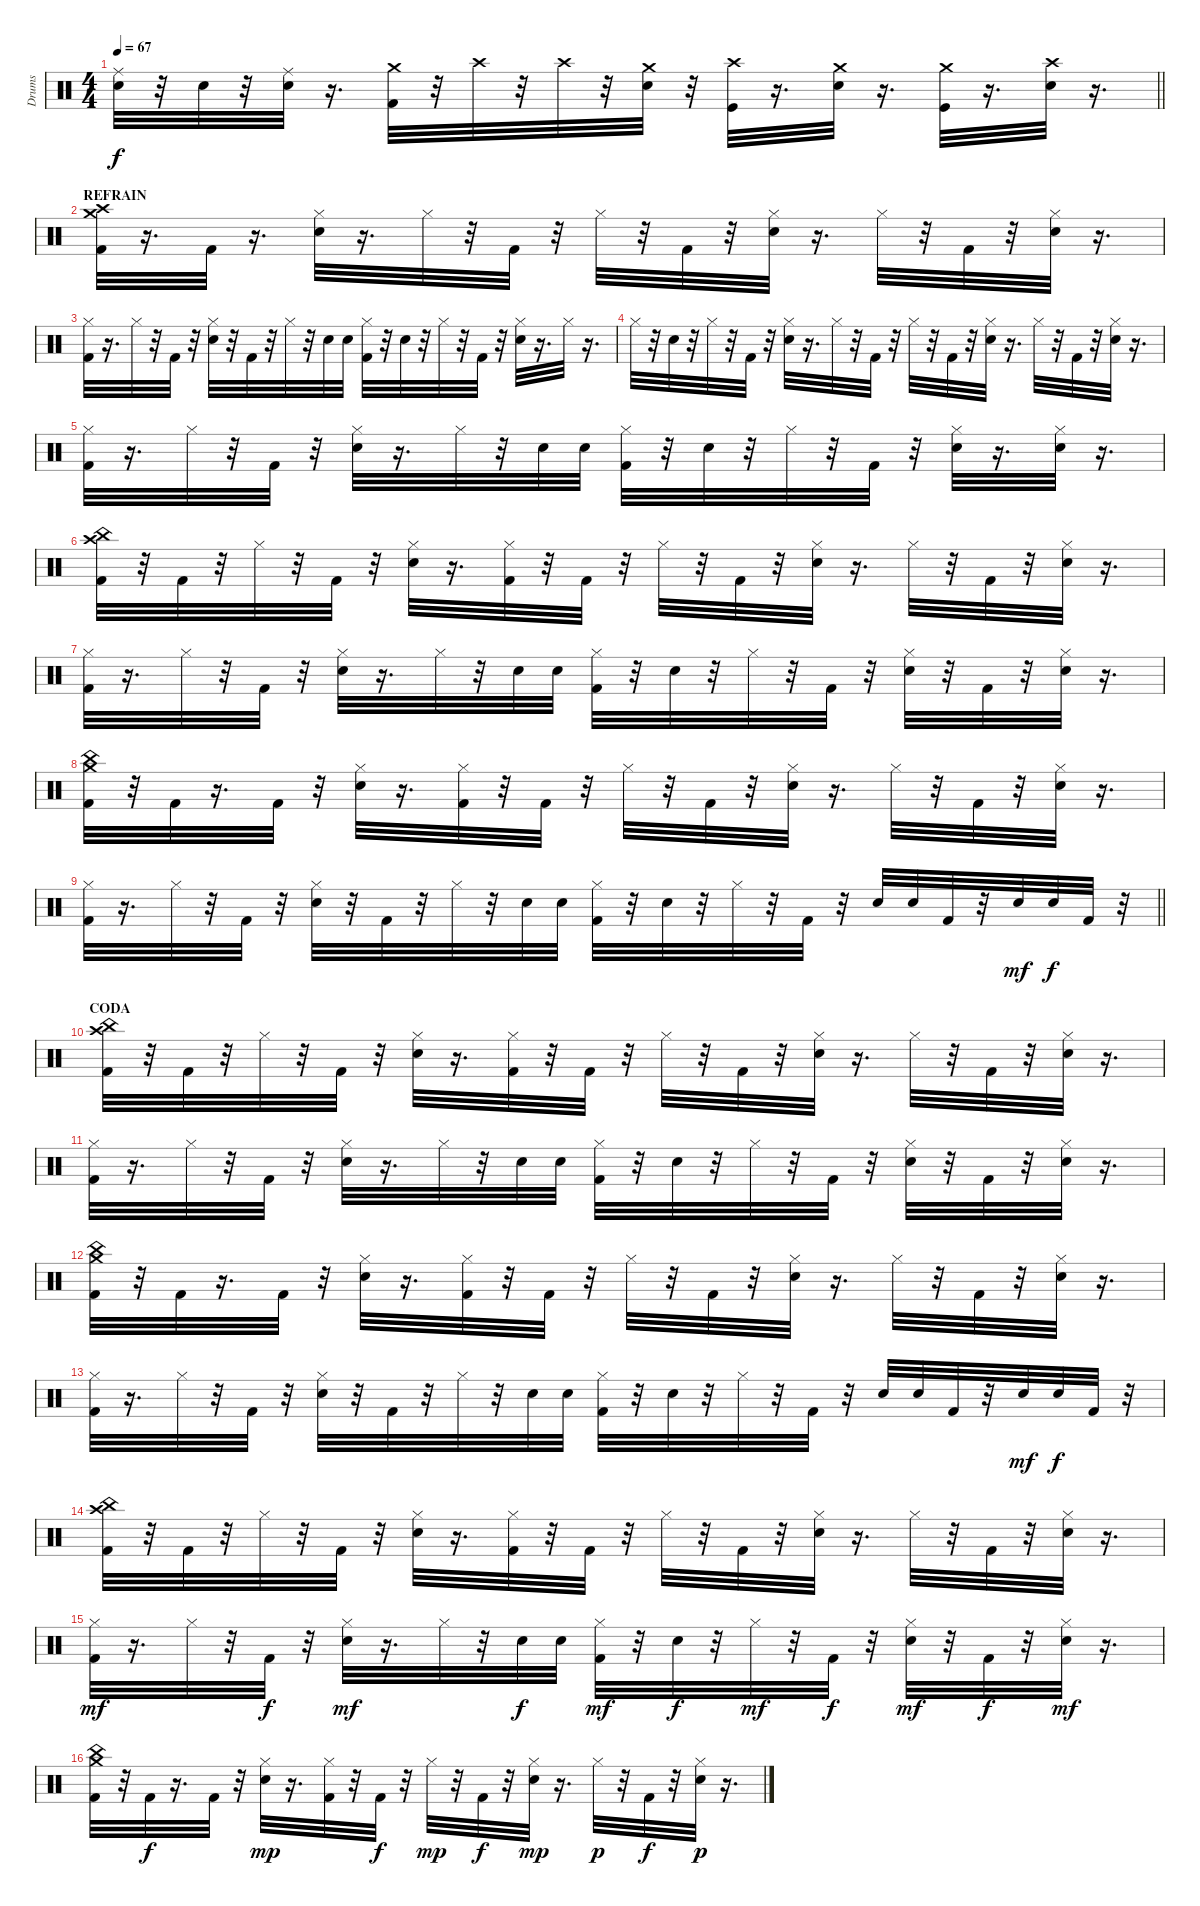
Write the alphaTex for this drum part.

\track ("Drums" "Drums") {instrument percussion}
\staff {score}
\articulation defaults
\ts (4 4)
\tempo 67
\clef neutral
\barLineRight lightlight
\ks c
("Snare (hit) 2" "Ride (middle)").32{dy f} r.32 "Snare (hit) 2".32 r.32 ("Snare (hit) 2" "Ride (middle)").32 r.16{d} ("Crash medium (hit)" "Kick (hit) 2").32 r.32 "Crash high (hit)".32 r.32 "Crash high (hit)".32 r.32 ("Snare (hit) 2" "Crash medium (hit)").32 r.32 ("Crash high (hit)" "Kick (hit)").32 r.16{d} ("Crash medium (hit)" "Snare (hit) 2").32 r.16{d} ("Crash medium (hit)" "Kick (hit)").32 r.16{d} ("Crash high (hit)" "Snare (hit) 2").32 r.16{d} |
\section ("" "REFRAIN")
("Crash high (hit)" "Kick (hit) 2" "Crash medium (hit)").32 r.16{d} "Kick (hit) 2".32 r.16{d} ("Snare (hit) 2" "Hi-Hat (closed)").32 r.16{d} "Hi-Hat (closed)".32 r.32 "Kick (hit) 2".32 r.32 "Hi-Hat (closed)".32 r.32 "Kick (hit) 2".32 r.32 ("Snare (hit) 2" "Hi-Hat (closed)").32 r.16{d} "Hi-Hat (closed)".32 r.32 "Kick (hit) 2".32 r.32 ("Snare (hit) 2" "Hi-Hat (closed)").32 r.16{d} |
("Kick (hit) 2" "Hi-Hat (closed)").32 r.16{d} "Hi-Hat (closed)".32 r.32 "Kick (hit) 2".32 r.32 ("Snare (hit) 2" "Hi-Hat (closed)").32 r.32 "Kick (hit) 2".32 r.32 "Hi-Hat (closed)".32 r.32 "Snare (hit) 2".32 "Snare (hit) 2".32 ("Kick (hit) 2" "Hi-Hat (closed)").32 r.32 "Snare (hit) 2".32 r.32 "Hi-Hat (closed)".32 r.32 "Kick (hit) 2".32 r.32 ("Snare (hit) 2" "Hi-Hat (closed)").32 r.16{d} "Hi-Hat (closed)".32 r.16{d} |
"Hi-Hat (closed)".32 r.32 "Snare (hit) 2".32 r.32 "Hi-Hat (closed)".32 r.32 "Kick (hit) 2".32 r.32 ("Snare (hit) 2" "Hi-Hat (closed)").32 r.16{d} "Hi-Hat (closed)".32 r.32 "Kick (hit) 2".32 r.32 "Hi-Hat (closed)".32 r.32 "Kick (hit) 2".32 r.32 ("Snare (hit) 2" "Hi-Hat (closed)").32 r.16{d} "Hi-Hat (closed)".32 r.32 "Kick (hit) 2".32 r.32 ("Snare (hit) 2" "Hi-Hat (closed)").32 r.16{d} |
("Kick (hit) 2" "Hi-Hat (closed)").32 r.16{d} "Hi-Hat (closed)".32 r.32 "Kick (hit) 2".32 r.32 ("Snare (hit) 2" "Hi-Hat (closed)").32 r.16{d} "Hi-Hat (closed)".32 r.32 "Snare (hit) 2".32 "Snare (hit) 2".32 ("Kick (hit) 2" "Hi-Hat (closed)").32 r.32 "Snare (hit) 2".32 r.32 "Hi-Hat (closed)".32 r.32 "Kick (hit) 2".32 r.32 ("Snare (hit) 2" "Hi-Hat (closed)").32 r.16{d} ("Snare (hit) 2" "Hi-Hat (closed)").32 r.16{d} |
("China (hit)" "Crash high (hit)" "Kick (hit) 2").32 r.32 "Kick (hit) 2".32 r.32 "Hi-Hat (closed)".32 r.32 "Kick (hit) 2".32 r.32 ("Snare (hit) 2" "Hi-Hat (closed)").32 r.16{d} ("Kick (hit) 2" "Hi-Hat (closed)").32 r.32 "Kick (hit) 2".32 r.32 "Hi-Hat (closed)".32 r.32 "Kick (hit) 2".32 r.32 ("Snare (hit) 2" "Hi-Hat (closed)").32 r.16{d} "Hi-Hat (closed)".32 r.32 "Kick (hit) 2".32 r.32 ("Snare (hit) 2" "Hi-Hat (closed)").32 r.16{d} |
("Kick (hit) 2" "Hi-Hat (closed)").32 r.16{d} "Hi-Hat (closed)".32 r.32 "Kick (hit) 2".32 r.32 ("Snare (hit) 2" "Hi-Hat (closed)").32 r.16{d} "Hi-Hat (closed)".32 r.32 "Snare (hit) 2".32 "Snare (hit) 2".32 ("Kick (hit) 2" "Hi-Hat (closed)").32 r.32 "Snare (hit) 2".32 r.32 "Hi-Hat (closed)".32 r.32 "Kick (hit) 2".32 r.32 ("Snare (hit) 2" "Hi-Hat (closed)").32 r.32 "Kick (hit) 2".32 r.32 ("Snare (hit) 2" "Hi-Hat (closed)").32 r.16{d} |
("China (hit)" "Crash medium (hit)" "Kick (hit) 2").32 r.32 "Kick (hit) 2".32 r.16{d} "Kick (hit) 2".32 r.32 ("Snare (hit) 2" "Hi-Hat (closed)").32 r.16{d} ("Kick (hit) 2" "Hi-Hat (closed)").32 r.32 "Kick (hit) 2".32 r.32 "Hi-Hat (closed)".32 r.32 "Kick (hit) 2".32 r.32 ("Snare (hit) 2" "Hi-Hat (closed)").32 r.16{d} "Hi-Hat (closed)".32 r.32 "Kick (hit) 2".32 r.32 ("Snare (hit) 2" "Hi-Hat (closed)").32 r.16{d} |
\barLineRight lightlight
("Kick (hit) 2" "Hi-Hat (closed)").32 r.16{d} "Hi-Hat (closed)".32 r.32 "Kick (hit) 2".32 r.32 ("Snare (hit) 2" "Hi-Hat (closed)").32 r.32 "Kick (hit) 2".32 r.32 "Hi-Hat (closed)".32 r.32 "Snare (hit) 2".32 "Snare (hit) 2".32 ("Kick (hit) 2" "Hi-Hat (closed)").32 r.32 "Snare (hit) 2".32 r.32 "Hi-Hat (closed)".32 r.32 "Kick (hit) 2".32 r.32 "Electric Snare (hit)".32 "Snare (hit) 2".32 "Kick (hit) 2".32 r.32 "Electric Snare (hit)".32{dy mf} "Snare (hit) 2".32{dy f} "Kick (hit) 2".32 r.32 |
\section ("" "CODA")
("China (hit)" "Crash high (hit)" "Kick (hit) 2").32 r.32 "Kick (hit) 2".32 r.32 "Hi-Hat (closed)".32 r.32 "Kick (hit) 2".32 r.32 ("Snare (hit) 2" "Hi-Hat (closed)").32 r.16{d} ("Kick (hit) 2" "Hi-Hat (closed)").32 r.32 "Kick (hit) 2".32 r.32 "Hi-Hat (closed)".32 r.32 "Kick (hit) 2".32 r.32 ("Snare (hit) 2" "Hi-Hat (closed)").32 r.16{d} "Hi-Hat (closed)".32 r.32 "Kick (hit) 2".32 r.32 ("Snare (hit) 2" "Hi-Hat (closed)").32 r.16{d} |
("Kick (hit) 2" "Hi-Hat (closed)").32 r.16{d} "Hi-Hat (closed)".32 r.32 "Kick (hit) 2".32 r.32 ("Snare (hit) 2" "Hi-Hat (closed)").32 r.16{d} "Hi-Hat (closed)".32 r.32 "Snare (hit) 2".32 "Snare (hit) 2".32 ("Kick (hit) 2" "Hi-Hat (closed)").32 r.32 "Snare (hit) 2".32 r.32 "Hi-Hat (closed)".32 r.32 "Kick (hit) 2".32 r.32 ("Snare (hit) 2" "Hi-Hat (closed)").32 r.32 "Kick (hit) 2".32 r.32 ("Snare (hit) 2" "Hi-Hat (closed)").32 r.16{d} |
("China (hit)" "Crash medium (hit)" "Kick (hit) 2").32 r.32 "Kick (hit) 2".32 r.16{d} "Kick (hit) 2".32 r.32 ("Snare (hit) 2" "Hi-Hat (closed)").32 r.16{d} ("Kick (hit) 2" "Hi-Hat (closed)").32 r.32 "Kick (hit) 2".32 r.32 "Hi-Hat (closed)".32 r.32 "Kick (hit) 2".32 r.32 ("Snare (hit) 2" "Hi-Hat (closed)").32 r.16{d} "Hi-Hat (closed)".32 r.32 "Kick (hit) 2".32 r.32 ("Snare (hit) 2" "Hi-Hat (closed)").32 r.16{d} |
("Kick (hit) 2" "Hi-Hat (closed)").32 r.16{d} "Hi-Hat (closed)".32 r.32 "Kick (hit) 2".32 r.32 ("Snare (hit) 2" "Hi-Hat (closed)").32 r.32 "Kick (hit) 2".32 r.32 "Hi-Hat (closed)".32 r.32 "Snare (hit) 2".32 "Snare (hit) 2".32 ("Kick (hit) 2" "Hi-Hat (closed)").32 r.32 "Snare (hit) 2".32 r.32 "Hi-Hat (closed)".32 r.32 "Kick (hit) 2".32 r.32 "Electric Snare (hit)".32 "Snare (hit) 2".32 "Kick (hit) 2".32 r.32 "Electric Snare (hit)".32{dy mf} "Snare (hit) 2".32{dy f} "Kick (hit) 2".32 r.32 |
("China (hit)" "Crash high (hit)" "Kick (hit) 2").32 r.32 "Kick (hit) 2".32 r.32 "Hi-Hat (closed)".32 r.32 "Kick (hit) 2".32 r.32 ("Snare (hit) 2" "Hi-Hat (closed)").32 r.16{d} ("Kick (hit) 2" "Hi-Hat (closed)").32 r.32 "Kick (hit) 2".32 r.32 "Hi-Hat (closed)".32 r.32 "Kick (hit) 2".32 r.32 ("Snare (hit) 2" "Hi-Hat (closed)").32 r.16{d} "Hi-Hat (closed)".32 r.32 "Kick (hit) 2".32 r.32 ("Snare (hit) 2" "Hi-Hat (closed)").32 r.16{d} |
("Kick (hit) 2" "Hi-Hat (closed)").32{dy mf} r.16{d} "Hi-Hat (closed)".32 r.32 "Kick (hit) 2".32{dy f} r.32 ("Snare (hit) 2" "Hi-Hat (closed)").32{dy mf} r.16{d} "Hi-Hat (closed)".32 r.32 "Snare (hit) 2".32{dy f} "Snare (hit) 2".32 ("Kick (hit) 2" "Hi-Hat (closed)").32{dy mf} r.32 "Snare (hit) 2".32{dy f} r.32 "Hi-Hat (closed)".32{dy mf} r.32 "Kick (hit) 2".32{dy f} r.32 ("Snare (hit) 2" "Hi-Hat (closed)").32{dy mf} r.32 "Kick (hit) 2".32{dy f} r.32 ("Snare (hit) 2" "Hi-Hat (closed)").32{dy mf} r.16{d} |
("China (hit)" "Crash medium (hit)" "Kick (hit) 2").32 r.32 "Kick (hit) 2".32{dy f} r.16{d} "Kick (hit) 2".32 r.32 ("Snare (hit) 2" "Hi-Hat (closed)").32{dy mp} r.16{d} ("Kick (hit) 2" "Hi-Hat (closed)").32 r.32 "Kick (hit) 2".32{dy f} r.32 "Hi-Hat (closed)".32{dy mp} r.32 "Kick (hit) 2".32{dy f} r.32 ("Snare (hit) 2" "Hi-Hat (closed)").32{dy mp} r.16{d} "Hi-Hat (closed)".32{dy p} r.32 "Kick (hit) 2".32{dy f} r.32 ("Snare (hit) 2" "Hi-Hat (closed)").32{dy p} r.16{d}
